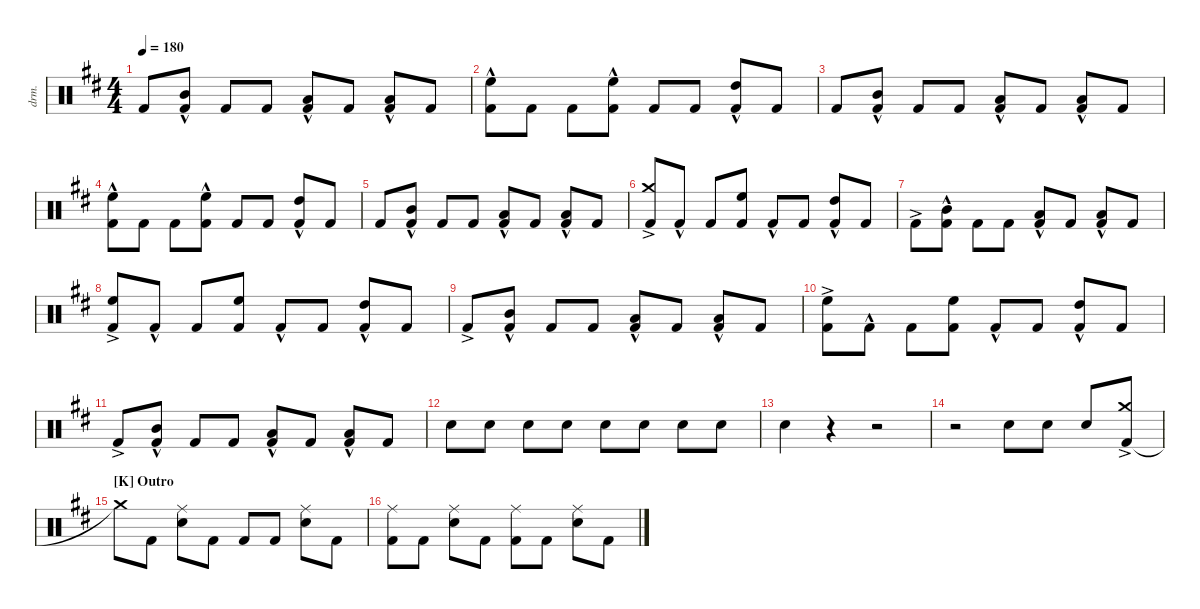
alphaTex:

\defaultSystemsLayout 4
\hideDynamics
\bracketExtendMode nobrackets
\otherSystemsTrackNameOrientation horizontal
\track ("Drum" "drm.") {instrument percussion}
\staff {score}
\articulation defaults
\ts (4 4)
\tempo 180
\clef neutral
\ks d "Kick (hit) 2"{acc forcenatural}.8{dy f beam Up}
("Kick (hit) 2"{hac acc forcenatural} "Mid Tom (hit)"{hac acc forcenatural}).8{beam Up} "Kick (hit) 2"{acc forcenatural}.8{beam Up} "Kick (hit) 2"{acc forcenatural}.8{beam Up} ("Kick (hit) 2"{hac acc forcenatural} "Low Tom (hit)"{hac acc forcenatural}).8{beam Up} "Kick (hit) 2"{acc forcenatural}.8{beam Up} ("Kick (hit) 2"{hac acc forcenatural} "Low Tom (hit)"{hac acc forcenatural}).8{beam Up} "Kick (hit) 2"{acc forcenatural}.8{beam Up} |
("Kick (hit) 2"{hac acc forcenatural} "High Floor Tom (hit)"{hac acc forcenatural}).8{beam Down} "Kick (hit) 2"{acc forcenatural}.8{beam Down} "Kick (hit) 2"{acc forcenatural}.8{beam Down} ("Kick (hit) 2"{hac acc forcenatural} "High Floor Tom (hit)"{hac acc forcenatural}).8{beam Down} "Kick (hit) 2"{acc forcenatural}.8{beam Up} "Kick (hit) 2"{acc forcenatural}.8{beam Up} ("Kick (hit) 2"{hac acc forcenatural} "High Tom (hit)"{hac acc forcenatural}).8{beam Up} "Kick (hit) 2"{acc forcenatural}.8{beam Up} |
"Kick (hit) 2"{acc forcenatural}.8{beam Up} ("Kick (hit) 2"{hac acc forcenatural} "Mid Tom (hit)"{hac acc forcenatural}).8{beam Up} "Kick (hit) 2"{acc forcenatural}.8{beam Up} "Kick (hit) 2"{acc forcenatural}.8{beam Up} ("Kick (hit) 2"{hac acc forcenatural} "Low Tom (hit)"{hac acc forcenatural}).8{beam Up} "Kick (hit) 2"{acc forcenatural}.8{beam Up} ("Kick (hit) 2"{hac acc forcenatural} "Low Tom (hit)"{hac acc forcenatural}).8{beam Up} "Kick (hit) 2"{acc forcenatural}.8{beam Up} |
("Kick (hit) 2"{hac acc forcenatural} "High Floor Tom (hit)"{hac acc forcenatural}).8{beam Down} "Kick (hit) 2"{acc forcenatural}.8{beam Down} "Kick (hit) 2"{acc forcenatural}.8{beam Down} ("Kick (hit) 2"{hac acc forcenatural} "High Floor Tom (hit)"{hac acc forcenatural}).8{beam Down} "Kick (hit) 2"{acc forcenatural}.8{beam Up} "Kick (hit) 2"{acc forcenatural}.8{beam Up} ("Kick (hit) 2"{hac acc forcenatural} "High Tom (hit)"{hac acc forcenatural}).8{beam Up} "Kick (hit) 2"{acc forcenatural}.8{beam Up} |
"Kick (hit) 2"{acc forcenatural}.8{beam Up} ("Kick (hit) 2"{hac acc forcenatural} "Mid Tom (hit)"{hac acc forcenatural}).8{beam Up} "Kick (hit) 2"{acc forcenatural}.8{beam Up} "Kick (hit) 2"{acc forcenatural}.8{beam Up} ("Kick (hit) 2"{hac acc forcenatural} "Low Tom (hit)"{hac acc forcenatural}).8{beam Up} "Kick (hit) 2"{acc forcenatural}.8{beam Up} ("Kick (hit) 2"{hac acc forcenatural} "Low Tom (hit)"{hac acc forcenatural}).8{beam Up} "Kick (hit) 2"{acc forcenatural}.8{beam Up} |
("Kick (hit) 2"{ac acc forcenatural} "Crash medium (hit)"{ac acc forcenatural}).8{beam Up} "Kick (hit) 2"{hac acc forcenatural}.8{beam Up} "Kick (hit) 2"{acc forcenatural}.8{beam Up} ("Kick (hit) 2"{acc forcenatural} "High Floor Tom (hit)"{acc forcenatural}).8{beam Up} "Kick (hit) 2"{hac acc forcenatural}.8{beam Up} "Kick (hit) 2"{acc forcenatural}.8{beam Up} ("Kick (hit) 2"{hac acc forcenatural} "High Tom (hit)"{acc forcenatural}).8{beam Up} "Kick (hit) 2"{acc forcenatural}.8{beam Up} |
"Kick (hit) 2"{ac acc forcenatural}.8{beam Down} ("Kick (hit) 2"{hac acc forcenatural} "Mid Tom (hit)"{acc forcenatural}).8{beam Down} "Kick (hit) 2"{acc forcenatural}.8{beam Down} "Kick (hit) 2"{acc forcenatural}.8{beam Down} ("Kick (hit) 2"{hac acc forcenatural} "Low Tom (hit)"{acc forcenatural}).8{beam Up} "Kick (hit) 2"{acc forcenatural}.8{beam Up} ("Kick (hit) 2"{hac acc forcenatural} "Low Tom (hit)"{acc forcenatural}).8{beam Up} "Kick (hit) 2"{acc forcenatural}.8{beam Up} |
("Kick (hit) 2"{ac acc forcenatural} "High Floor Tom (hit)"{acc forcenatural}).8{beam Up} "Kick (hit) 2"{hac acc forcenatural}.8{beam Up} "Kick (hit) 2"{acc forcenatural}.8{beam Up} ("Kick (hit) 2"{acc forcenatural} "High Floor Tom (hit)"{acc forcenatural}).8{beam Up} "Kick (hit) 2"{hac acc forcenatural}.8{beam Up} "Kick (hit) 2"{acc forcenatural}.8{beam Up} ("Kick (hit) 2"{hac acc forcenatural} "High Tom (hit)"{acc forcenatural}).8{beam Up} "Kick (hit) 2"{acc forcenatural}.8{beam Up} |
"Kick (hit) 2"{ac acc forcenatural}.8{beam Up} ("Kick (hit) 2"{hac acc forcenatural} "Mid Tom (hit)"{acc forcenatural}).8{beam Up} "Kick (hit) 2"{acc forcenatural}.8{beam Up} "Kick (hit) 2"{acc forcenatural}.8{beam Up} ("Kick (hit) 2"{hac acc forcenatural} "Low Tom (hit)"{acc forcenatural}).8{beam Up} "Kick (hit) 2"{acc forcenatural}.8{beam Up} ("Kick (hit) 2"{hac acc forcenatural} "Low Tom (hit)"{acc forcenatural}).8{beam Up} "Kick (hit) 2"{acc forcenatural}.8{beam Up} |
("Kick (hit) 2"{ac acc forcenatural} "High Floor Tom (hit)"{acc forcenatural}).8{beam Down} "Kick (hit) 2"{hac acc forcenatural}.8{beam Down} "Kick (hit) 2"{acc forcenatural}.8{beam Down} ("Kick (hit) 2"{acc forcenatural} "High Floor Tom (hit)"{acc forcenatural}).8{beam Down} "Kick (hit) 2"{hac acc forcenatural}.8{beam Up} "Kick (hit) 2"{acc forcenatural}.8{beam Up} ("Kick (hit) 2"{hac acc forcenatural} "High Tom (hit)"{acc forcenatural}).8{beam Up} "Kick (hit) 2"{acc forcenatural}.8{beam Up} |
"Kick (hit) 2"{ac acc forcenatural}.8{beam Up} ("Kick (hit) 2"{hac acc forcenatural} "Mid Tom (hit)"{acc forcenatural}).8{beam Up} "Kick (hit) 2"{acc forcenatural}.8{beam Up} "Kick (hit) 2"{acc forcenatural}.8{beam Up} ("Kick (hit) 2"{hac acc forcenatural} "Low Tom (hit)"{acc forcenatural}).8{beam Up} "Kick (hit) 2"{acc forcenatural}.8{beam Up} ("Kick (hit) 2"{hac acc forcenatural} "Low Tom (hit)"{acc forcenatural}).8{beam Up} "Kick (hit) 2"{acc forcenatural}.8{beam Up} |
"Snare (hit) 2"{acc forcenatural}.8{beam Down} "Snare (hit) 2"{acc forcenatural}.8{beam Down} "Snare (hit) 2"{acc forcenatural}.8{beam Down} "Snare (hit) 2"{acc forcenatural}.8{beam Down} "Snare (hit) 2"{acc forcenatural}.8{beam Down} "Snare (hit) 2"{acc forcenatural}.8{beam Down} "Snare (hit) 2"{acc forcenatural}.8{beam Down} "Snare (hit) 2"{acc forcenatural}.8{beam Down} |
"Snare (hit) 2"{acc forcenatural}.4{beam Down} r.4{beam Down} r.2{beam Down} |
r.2{beam Down} "Snare (hit) 2"{acc forcenatural}.8{beam Down} "Snare (hit) 2"{acc forcenatural}.8{beam Down} "Snare (hit) 2"{acc forcenatural}.8{beam Up} ("Kick (hit) 2"{ac acc forcenatural} "Crash medium (hit)"{ac acc forcenatural}).8{beam Up} |
\section ("K" "Outro")
"Crash medium (hit)"{t acc forcenatural}.8{beam Down} "Kick (hit) 2"{acc forcenatural}.8{beam Down} ("Snare (hit) 2"{acc forcenatural} "Ride (middle)"{acc forcenatural}).8{beam Down} "Kick (hit) 2"{acc forcenatural}.8{beam Down} "Kick (hit) 2"{acc forcenatural}.8{beam Up} "Kick (hit) 2"{acc forcenatural}.8{beam Up} ("Snare (hit) 2"{acc forcenatural} "Ride (middle)"{acc forcenatural}).8{beam Down} "Kick (hit) 2"{acc forcenatural}.8{beam Down} |
("Ride (middle)"{acc forcenatural} "Kick (hit) 2"{acc forcenatural}).8{beam Down} "Kick (hit) 2"{acc forcenatural}.8{beam Down} ("Snare (hit) 2"{acc forcenatural} "Ride (middle)"{acc forcenatural}).8{beam Down} "Kick (hit) 2"{acc forcenatural}.8{beam Down} ("Kick (hit) 2"{acc forcenatural} "Ride (middle)"{acc forcenatural}).8{beam Down} "Kick (hit) 2"{acc forcenatural}.8{beam Down} ("Snare (hit) 2"{acc forcenatural} "Ride (middle)"{acc forcenatural}).8{beam Down} "Kick (hit) 2"{acc forcenatural}.8{beam Down}
